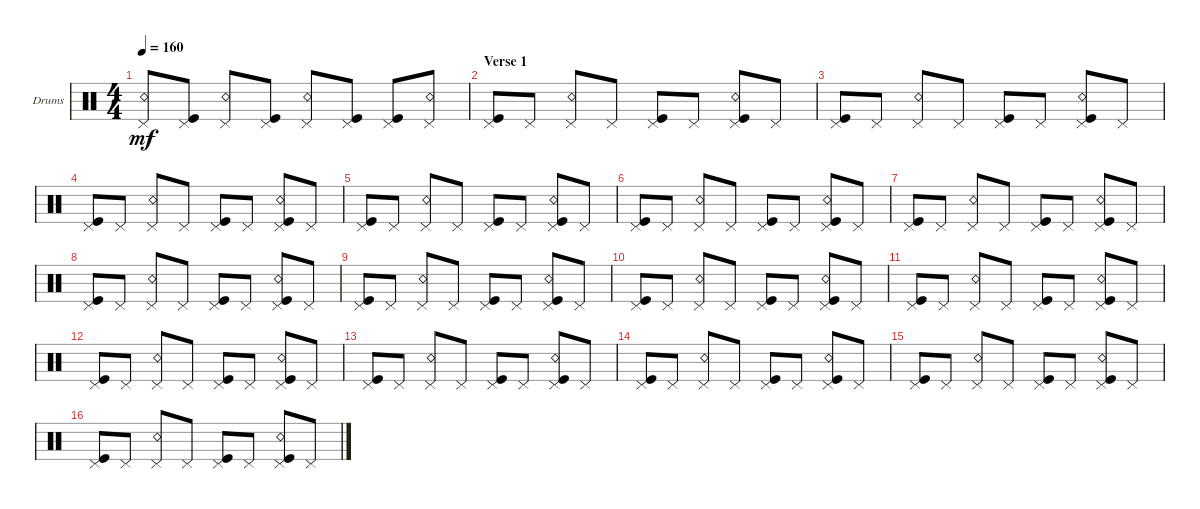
\bracketExtendMode groupsimilarinstruments
\firstSystemTrackNameOrientation horizontal
\otherSystemsTrackNameOrientation horizontal
\track ("Drumkit" "Drums") {instrument percussion}
\staff {score}
\articulation defaults
\ts (4 4)
\tempo 160
\clef neutral
\ks c
("Pedal Hi-Hat (hit)" "Snare (rim shot)").8{dy mf} ("Pedal Hi-Hat (hit)" "Kick (hit)").8 ("Pedal Hi-Hat (hit)" "Snare (rim shot)").8 ("Pedal Hi-Hat (hit)" "Kick (hit)").8 ("Pedal Hi-Hat (hit)" "Snare (rim shot)").8 ("Pedal Hi-Hat (hit)" "Kick (hit)").8 ("Pedal Hi-Hat (hit)" "Kick (hit)").8 ("Pedal Hi-Hat (hit)" "Snare (rim shot)").8 |
\section ("" "Verse 1")
("Pedal Hi-Hat (hit)" "Kick (hit)").8 "Pedal Hi-Hat (hit)".8 ("Pedal Hi-Hat (hit)" "Snare (rim shot)").8 "Pedal Hi-Hat (hit)".8 ("Pedal Hi-Hat (hit)" "Kick (hit)").8 "Pedal Hi-Hat (hit)".8 ("Pedal Hi-Hat (hit)" "Kick (hit)" "Snare (rim shot)").8 "Pedal Hi-Hat (hit)".8 |
("Pedal Hi-Hat (hit)" "Kick (hit)").8 "Pedal Hi-Hat (hit)".8 ("Pedal Hi-Hat (hit)" "Snare (rim shot)").8 "Pedal Hi-Hat (hit)".8 ("Pedal Hi-Hat (hit)" "Kick (hit)").8 "Pedal Hi-Hat (hit)".8 ("Pedal Hi-Hat (hit)" "Kick (hit)" "Snare (rim shot)").8 "Pedal Hi-Hat (hit)".8 |
("Pedal Hi-Hat (hit)" "Kick (hit)").8 "Pedal Hi-Hat (hit)".8 ("Pedal Hi-Hat (hit)" "Snare (rim shot)").8 "Pedal Hi-Hat (hit)".8 ("Pedal Hi-Hat (hit)" "Kick (hit)").8 "Pedal Hi-Hat (hit)".8 ("Pedal Hi-Hat (hit)" "Kick (hit)" "Snare (rim shot)").8 "Pedal Hi-Hat (hit)".8 |
("Pedal Hi-Hat (hit)" "Kick (hit)").8 "Pedal Hi-Hat (hit)".8 ("Pedal Hi-Hat (hit)" "Snare (rim shot)").8 "Pedal Hi-Hat (hit)".8 ("Pedal Hi-Hat (hit)" "Kick (hit)").8 "Pedal Hi-Hat (hit)".8 ("Pedal Hi-Hat (hit)" "Kick (hit)" "Snare (rim shot)").8 "Pedal Hi-Hat (hit)".8 |
("Pedal Hi-Hat (hit)" "Kick (hit)").8 "Pedal Hi-Hat (hit)".8 ("Pedal Hi-Hat (hit)" "Snare (rim shot)").8 "Pedal Hi-Hat (hit)".8 ("Pedal Hi-Hat (hit)" "Kick (hit)").8 "Pedal Hi-Hat (hit)".8 ("Pedal Hi-Hat (hit)" "Kick (hit)" "Snare (rim shot)").8 "Pedal Hi-Hat (hit)".8 |
("Pedal Hi-Hat (hit)" "Kick (hit)").8 "Pedal Hi-Hat (hit)".8 ("Pedal Hi-Hat (hit)" "Snare (rim shot)").8 "Pedal Hi-Hat (hit)".8 ("Pedal Hi-Hat (hit)" "Kick (hit)").8 "Pedal Hi-Hat (hit)".8 ("Pedal Hi-Hat (hit)" "Kick (hit)" "Snare (rim shot)").8 "Pedal Hi-Hat (hit)".8 |
("Pedal Hi-Hat (hit)" "Kick (hit)").8 "Pedal Hi-Hat (hit)".8 ("Pedal Hi-Hat (hit)" "Snare (rim shot)").8 "Pedal Hi-Hat (hit)".8 ("Pedal Hi-Hat (hit)" "Kick (hit)").8 "Pedal Hi-Hat (hit)".8 ("Pedal Hi-Hat (hit)" "Kick (hit)" "Snare (rim shot)").8 "Pedal Hi-Hat (hit)".8 |
("Pedal Hi-Hat (hit)" "Kick (hit)").8 "Pedal Hi-Hat (hit)".8 ("Pedal Hi-Hat (hit)" "Snare (rim shot)").8 "Pedal Hi-Hat (hit)".8 ("Pedal Hi-Hat (hit)" "Kick (hit)").8 "Pedal Hi-Hat (hit)".8 ("Pedal Hi-Hat (hit)" "Kick (hit)" "Snare (rim shot)").8 "Pedal Hi-Hat (hit)".8 |
("Pedal Hi-Hat (hit)" "Kick (hit)").8 "Pedal Hi-Hat (hit)".8 ("Pedal Hi-Hat (hit)" "Snare (rim shot)").8 "Pedal Hi-Hat (hit)".8 ("Pedal Hi-Hat (hit)" "Kick (hit)").8 "Pedal Hi-Hat (hit)".8 ("Pedal Hi-Hat (hit)" "Kick (hit)" "Snare (rim shot)").8 "Pedal Hi-Hat (hit)".8 |
("Pedal Hi-Hat (hit)" "Kick (hit)").8 "Pedal Hi-Hat (hit)".8 ("Pedal Hi-Hat (hit)" "Snare (rim shot)").8 "Pedal Hi-Hat (hit)".8 ("Pedal Hi-Hat (hit)" "Kick (hit)").8 "Pedal Hi-Hat (hit)".8 ("Pedal Hi-Hat (hit)" "Kick (hit)" "Snare (rim shot)").8 "Pedal Hi-Hat (hit)".8 |
("Pedal Hi-Hat (hit)" "Kick (hit)").8 "Pedal Hi-Hat (hit)".8 ("Pedal Hi-Hat (hit)" "Snare (rim shot)").8 "Pedal Hi-Hat (hit)".8 ("Pedal Hi-Hat (hit)" "Kick (hit)").8 "Pedal Hi-Hat (hit)".8 ("Pedal Hi-Hat (hit)" "Kick (hit)" "Snare (rim shot)").8 "Pedal Hi-Hat (hit)".8 |
("Pedal Hi-Hat (hit)" "Kick (hit)").8 "Pedal Hi-Hat (hit)".8 ("Pedal Hi-Hat (hit)" "Snare (rim shot)").8 "Pedal Hi-Hat (hit)".8 ("Pedal Hi-Hat (hit)" "Kick (hit)").8 "Pedal Hi-Hat (hit)".8 ("Pedal Hi-Hat (hit)" "Kick (hit)" "Snare (rim shot)").8 "Pedal Hi-Hat (hit)".8 |
("Pedal Hi-Hat (hit)" "Kick (hit)").8 "Pedal Hi-Hat (hit)".8 ("Pedal Hi-Hat (hit)" "Snare (rim shot)").8 "Pedal Hi-Hat (hit)".8 ("Pedal Hi-Hat (hit)" "Kick (hit)").8 "Pedal Hi-Hat (hit)".8 ("Pedal Hi-Hat (hit)" "Kick (hit)" "Snare (rim shot)").8 "Pedal Hi-Hat (hit)".8 |
("Pedal Hi-Hat (hit)" "Kick (hit)").8 "Pedal Hi-Hat (hit)".8 ("Pedal Hi-Hat (hit)" "Snare (rim shot)").8 "Pedal Hi-Hat (hit)".8 ("Pedal Hi-Hat (hit)" "Kick (hit)").8 "Pedal Hi-Hat (hit)".8 ("Pedal Hi-Hat (hit)" "Kick (hit)" "Snare (rim shot)").8 "Pedal Hi-Hat (hit)".8 |
("Pedal Hi-Hat (hit)" "Kick (hit)").8 "Pedal Hi-Hat (hit)".8 ("Pedal Hi-Hat (hit)" "Snare (rim shot)").8 "Pedal Hi-Hat (hit)".8 ("Pedal Hi-Hat (hit)" "Kick (hit)").8 "Pedal Hi-Hat (hit)".8 ("Pedal Hi-Hat (hit)" "Kick (hit)" "Snare (rim shot)").8 "Pedal Hi-Hat (hit)".8
